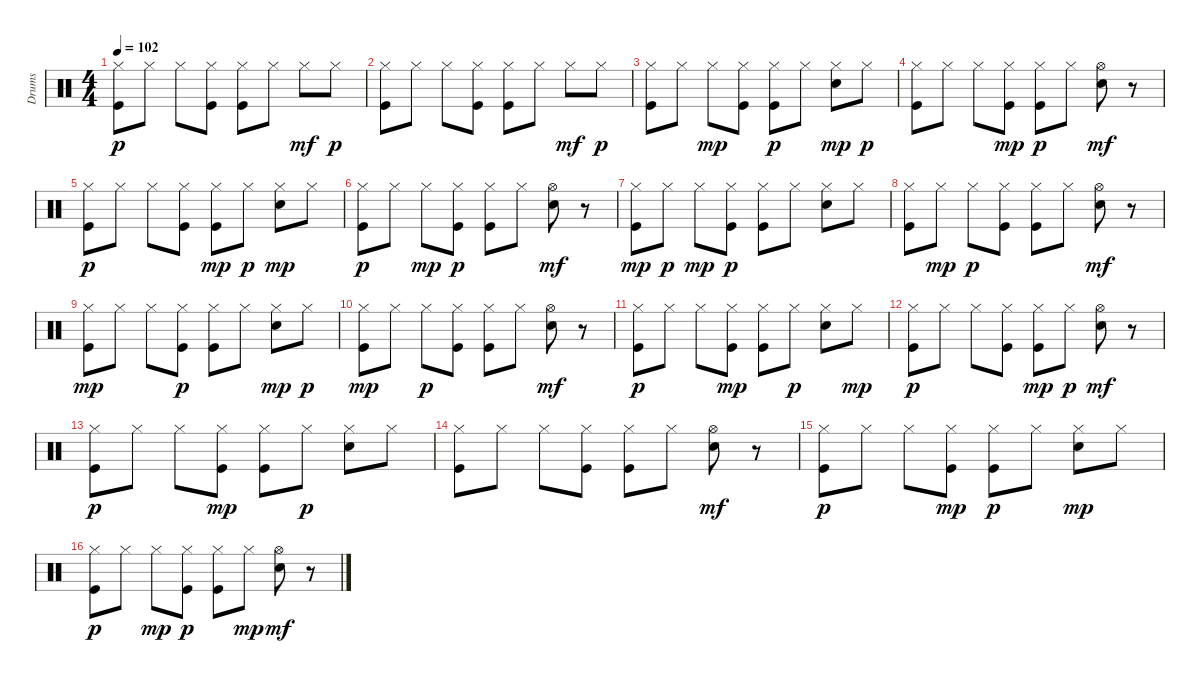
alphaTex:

\track ("Drums" "Drums") {instrument percussion}
\staff {score}
\articulation defaults
\ts (4 4)
\tempo 102
\clef neutral
\ks c
("Kick (hit)" "Hi-Hat (closed)").8{dy p} "Hi-Hat (closed)".8 "Hi-Hat (closed)".8 ("Kick (hit)" "Hi-Hat (closed)").8 ("Kick (hit)" "Hi-Hat (closed)").8 "Hi-Hat (closed)".8 "Hi-Hat (closed)".8{dy mf} "Hi-Hat (closed)".8{dy p} |
("Kick (hit)" "Hi-Hat (closed)").8 "Hi-Hat (closed)".8 "Hi-Hat (closed)".8 ("Kick (hit)" "Hi-Hat (closed)").8 ("Kick (hit)" "Hi-Hat (closed)").8 "Hi-Hat (closed)".8 "Hi-Hat (closed)".8{dy mf} "Hi-Hat (closed)".8{dy p} |
("Kick (hit)" "Hi-Hat (closed)").8 "Hi-Hat (closed)".8 "Hi-Hat (closed)".8{dy mp} ("Kick (hit)" "Hi-Hat (closed)").8 ("Kick (hit)" "Hi-Hat (closed)").8{dy p} "Hi-Hat (closed)".8 ("Snare (hit) 2" "Hi-Hat (closed)").8{dy mp} "Hi-Hat (closed)".8{dy p} |
("Kick (hit)" "Hi-Hat (closed)").8 "Hi-Hat (closed)".8 "Hi-Hat (closed)".8 ("Kick (hit)" "Hi-Hat (closed)").8{dy mp} ("Kick (hit)" "Hi-Hat (closed)").8{dy p} "Hi-Hat (closed)".8 ("Hi-Hat (open)" "Snare (hit) 2").8{dy mf} r.8 |
("Kick (hit)" "Hi-Hat (closed)").8{dy p} "Hi-Hat (closed)".8 "Hi-Hat (closed)".8 ("Kick (hit)" "Hi-Hat (closed)").8 ("Kick (hit)" "Hi-Hat (closed)").8{dy mp} "Hi-Hat (closed)".8{dy p} ("Snare (hit) 2" "Hi-Hat (closed)").8{dy mp} "Hi-Hat (closed)".8 |
("Kick (hit)" "Hi-Hat (closed)").8{dy p} "Hi-Hat (closed)".8 "Hi-Hat (closed)".8{dy mp} ("Kick (hit)" "Hi-Hat (closed)").8{dy p} ("Kick (hit)" "Hi-Hat (closed)").8 "Hi-Hat (closed)".8 ("Hi-Hat (open)" "Snare (hit) 2").8{dy mf} r.8 |
("Kick (hit)" "Hi-Hat (closed)").8{dy mp} "Hi-Hat (closed)".8{dy p} "Hi-Hat (closed)".8{dy mp} ("Kick (hit)" "Hi-Hat (closed)").8{dy p} ("Kick (hit)" "Hi-Hat (closed)").8 "Hi-Hat (closed)".8 ("Snare (hit) 2" "Hi-Hat (closed)").8 "Hi-Hat (closed)".8 |
("Kick (hit)" "Hi-Hat (closed)").8 "Hi-Hat (closed)".8{dy mp} "Hi-Hat (closed)".8{dy p} ("Kick (hit)" "Hi-Hat (closed)").8 ("Kick (hit)" "Hi-Hat (closed)").8 "Hi-Hat (closed)".8 ("Hi-Hat (open)" "Snare (hit) 2").8{dy mf} r.8 |
("Kick (hit)" "Hi-Hat (closed)").8{dy mp} "Hi-Hat (closed)".8 "Hi-Hat (closed)".8 ("Kick (hit)" "Hi-Hat (closed)").8{dy p} ("Kick (hit)" "Hi-Hat (closed)").8 "Hi-Hat (closed)".8 ("Snare (hit) 2" "Hi-Hat (closed)").8{dy mp} "Hi-Hat (closed)".8{dy p} |
("Kick (hit)" "Hi-Hat (closed)").8{dy mp} "Hi-Hat (closed)".8 "Hi-Hat (closed)".8{dy p} ("Kick (hit)" "Hi-Hat (closed)").8 ("Kick (hit)" "Hi-Hat (closed)").8 "Hi-Hat (closed)".8 ("Hi-Hat (open)" "Snare (hit) 2").8{dy mf} r.8 |
("Kick (hit)" "Hi-Hat (closed)").8{dy p} "Hi-Hat (closed)".8 "Hi-Hat (closed)".8 ("Kick (hit)" "Hi-Hat (closed)").8{dy mp} ("Kick (hit)" "Hi-Hat (closed)").8 "Hi-Hat (closed)".8{dy p} ("Snare (hit) 2" "Hi-Hat (closed)").8 "Hi-Hat (closed)".8{dy mp} |
("Kick (hit)" "Hi-Hat (closed)").8{dy p} "Hi-Hat (closed)".8 "Hi-Hat (closed)".8 ("Kick (hit)" "Hi-Hat (closed)").8 ("Kick (hit)" "Hi-Hat (closed)").8{dy mp} "Hi-Hat (closed)".8{dy p} ("Hi-Hat (open)" "Snare (hit) 2").8{dy mf} r.8 |
("Kick (hit)" "Hi-Hat (closed)").8{dy p} "Hi-Hat (closed)".8 "Hi-Hat (closed)".8 ("Kick (hit)" "Hi-Hat (closed)").8{dy mp} ("Kick (hit)" "Hi-Hat (closed)").8 "Hi-Hat (closed)".8{dy p} ("Snare (hit) 2" "Hi-Hat (closed)").8 "Hi-Hat (closed)".8 |
("Kick (hit)" "Hi-Hat (closed)").8 "Hi-Hat (closed)".8 "Hi-Hat (closed)".8 ("Kick (hit)" "Hi-Hat (closed)").8 ("Kick (hit)" "Hi-Hat (closed)").8 "Hi-Hat (closed)".8 ("Hi-Hat (open)" "Snare (hit) 2").8{dy mf} r.8 |
("Kick (hit)" "Hi-Hat (closed)").8{dy p} "Hi-Hat (closed)".8 "Hi-Hat (closed)".8 ("Kick (hit)" "Hi-Hat (closed)").8{dy mp} ("Kick (hit)" "Hi-Hat (closed)").8{dy p} "Hi-Hat (closed)".8 ("Snare (hit) 2" "Hi-Hat (closed)").8{dy mp} "Hi-Hat (closed)".8 |
("Kick (hit)" "Hi-Hat (closed)").8{dy p} "Hi-Hat (closed)".8 "Hi-Hat (closed)".8{dy mp} ("Kick (hit)" "Hi-Hat (closed)").8{dy p} ("Kick (hit)" "Hi-Hat (closed)").8 "Hi-Hat (closed)".8{dy mp} ("Hi-Hat (open)" "Snare (hit) 2").8{dy mf} r.8
